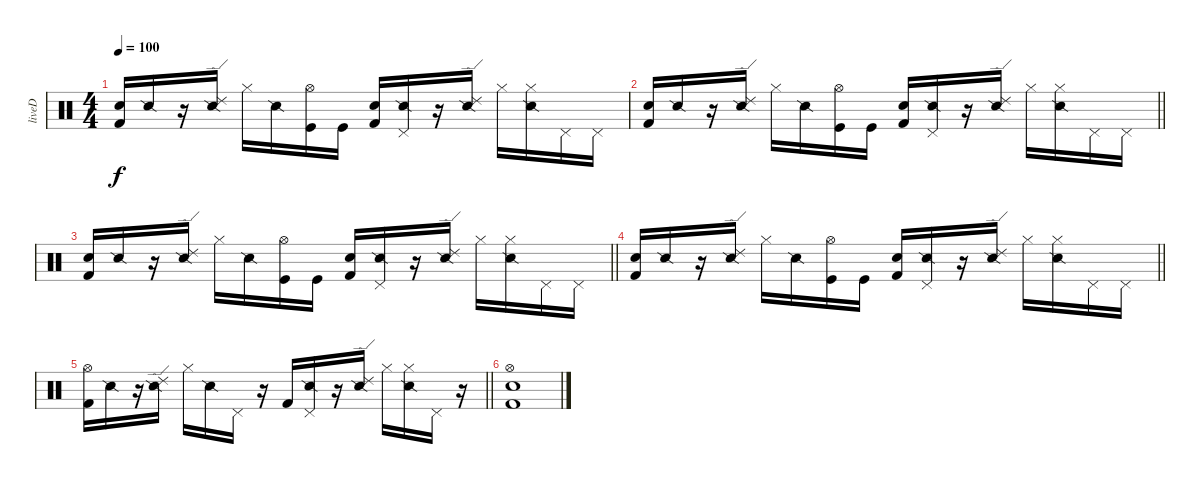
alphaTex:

\track ("liveD" "liveD") {instrument percussion}
\staff {score}
\articulation defaults
\ts (4 4)
\tempo 100
\clef neutral
\ks c
("Electric Snare (hit)" "Kick (hit) 2").16{dy f} "Snare (side stick) 2".16 r.16 ("Snare (side stick) 2" "Ride (edge) 2").16 "Hi-Hat (closed)".16 "Snare (side stick) 2".16 ("Hi-Hat (open)" "Kick (hit)").16 "Kick (hit)".16 ("Snare (hit) 2" "Kick (hit) 2").16 ("Snare (side stick) 2" "Pedal Hi-Hat (hit)").16 r.16 ("Snare (side stick) 2" "Ride (edge) 2").16 "Hi-Hat (closed)".16 ("Snare (side stick) 2" "Hi-Hat (closed)").16 "Pedal Hi-Hat (hit)".16 "Pedal Hi-Hat (hit)".16 |
\barLineRight lightlight
("Electric Snare (hit)" "Kick (hit) 2").16 "Snare (side stick) 2".16 r.16 ("Snare (side stick) 2" "Ride (edge) 2").16 "Hi-Hat (closed)".16 "Snare (side stick) 2".16 ("Hi-Hat (open)" "Kick (hit)").16 "Kick (hit)".16 ("Snare (hit) 2" "Kick (hit) 2").16 ("Snare (side stick) 2" "Pedal Hi-Hat (hit)").16 r.16 ("Snare (side stick) 2" "Ride (edge) 2").16 "Hi-Hat (closed)".16 ("Snare (side stick) 2" "Hi-Hat (closed)").16 "Pedal Hi-Hat (hit)".16 "Pedal Hi-Hat (hit)".16 |
\barLineRight lightlight
("Electric Snare (hit)" "Kick (hit) 2").16 "Snare (side stick) 2".16 r.16 ("Snare (side stick) 2" "Ride (edge) 2").16 "Hi-Hat (closed)".16 "Snare (side stick) 2".16 ("Hi-Hat (open)" "Kick (hit)").16 "Kick (hit)".16 ("Snare (hit) 2" "Kick (hit) 2").16 ("Snare (side stick) 2" "Pedal Hi-Hat (hit)").16 r.16 ("Snare (side stick) 2" "Ride (edge) 2").16 "Hi-Hat (closed)".16 ("Snare (side stick) 2" "Hi-Hat (closed)").16 "Pedal Hi-Hat (hit)".16 "Pedal Hi-Hat (hit)".16 |
\barLineRight lightlight
("Electric Snare (hit)" "Kick (hit) 2").16 "Snare (side stick) 2".16 r.16 ("Snare (side stick) 2" "Ride (edge) 2").16 "Hi-Hat (closed)".16 "Snare (side stick) 2".16 ("Hi-Hat (open)" "Kick (hit)").16 "Kick (hit)".16 ("Snare (hit) 2" "Kick (hit) 2").16 ("Snare (side stick) 2" "Pedal Hi-Hat (hit)").16 r.16 ("Snare (side stick) 2" "Ride (edge) 2").16 "Hi-Hat (closed)".16 ("Snare (side stick) 2" "Hi-Hat (closed)").16 "Pedal Hi-Hat (hit)".16 "Pedal Hi-Hat (hit)".16 |
\barLineRight lightlight
("Hi-Hat (open)" "Kick (hit) 2").16 "Snare (side stick) 2".16 r.16 ("Snare (side stick) 2" "Ride (edge) 2").16 "Hi-Hat (closed)".16 "Snare (side stick) 2".16 "Pedal Hi-Hat (hit)".16 r.16 "Kick (hit) 2".16 ("Snare (side stick) 2" "Pedal Hi-Hat (hit)").16 r.16 ("Snare (side stick) 2" "Ride (edge) 2").16 "Hi-Hat (closed)".16 ("Snare (side stick) 2" "Hi-Hat (closed)").16 "Pedal Hi-Hat (hit)".16 r.16 |
("Electric Snare (hit)" "Hi-Hat (open)" "Kick (hit) 2").1
